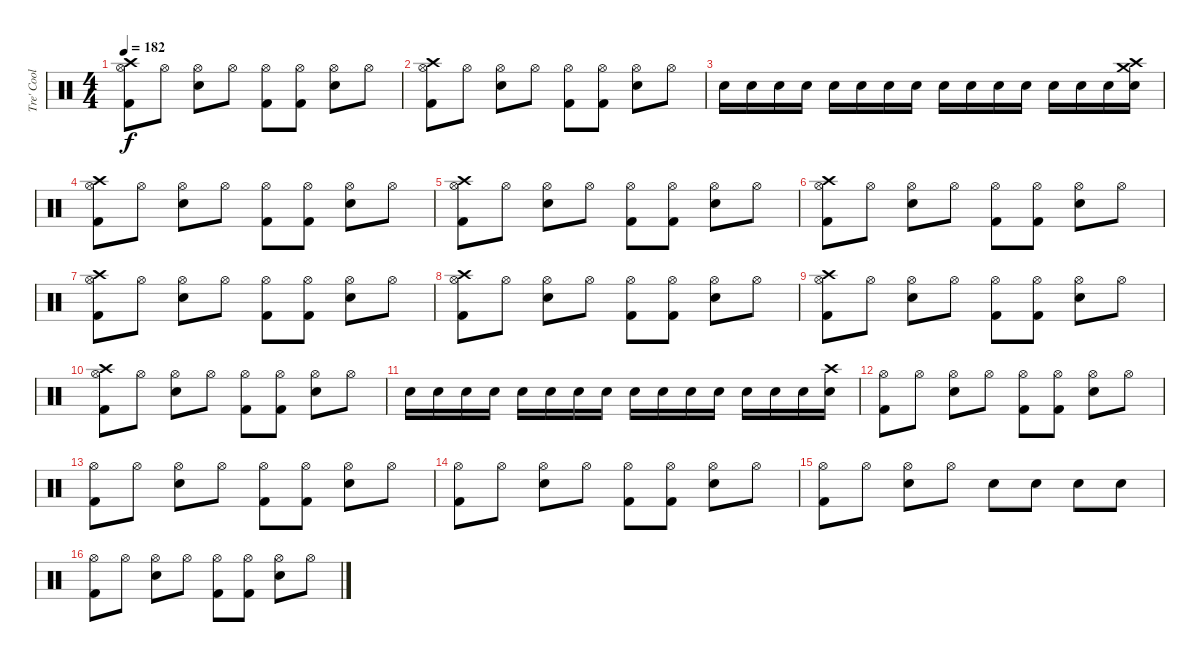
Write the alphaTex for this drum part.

\track ("Tre' Cool (DRUMS)!!!!!!!!!" "Tre' Cool ") {instrument percussion}
\staff {score}
\articulation defaults
\ts (4 4)
\tempo 182
\clef neutral
\ks c
("Crash high (hit)" "Hi-Hat (open)" "Kick (hit) 2").8{dy f} "Hi-Hat (open)".8 ("Hi-Hat (open)" "Snare (hit) 2").8 "Hi-Hat (open)".8 ("Hi-Hat (open)" "Kick (hit) 2").8 ("Hi-Hat (open)" "Kick (hit) 2").8 ("Hi-Hat (open)" "Snare (hit) 2").8 "Hi-Hat (open)".8 |
("Crash high (hit)" "Hi-Hat (open)" "Kick (hit) 2").8 "Hi-Hat (open)".8 ("Hi-Hat (open)" "Snare (hit) 2").8 "Hi-Hat (open)".8 ("Hi-Hat (open)" "Kick (hit) 2").8 ("Hi-Hat (open)" "Kick (hit) 2").8 ("Hi-Hat (open)" "Snare (hit) 2").8 "Hi-Hat (open)".8 |
"Snare (hit) 2".16 "Snare (hit) 2".16 "Snare (hit) 2".16 "Snare (hit) 2".16 "Snare (hit) 2".16 "Snare (hit) 2".16 "Snare (hit) 2".16 "Snare (hit) 2".16 "Snare (hit) 2".16 "Snare (hit) 2".16 "Snare (hit) 2".16 "Snare (hit) 2".16 "Snare (hit) 2".16 "Snare (hit) 2".16 "Snare (hit) 2".16 ("Crash high (hit)" "Crash medium (hit)" "Snare (hit) 2").16 |
("Crash high (hit)" "Hi-Hat (open)" "Kick (hit) 2").8 "Hi-Hat (open)".8 ("Hi-Hat (open)" "Snare (hit) 2").8 "Hi-Hat (open)".8 ("Hi-Hat (open)" "Kick (hit) 2").8 ("Hi-Hat (open)" "Kick (hit) 2").8 ("Hi-Hat (open)" "Snare (hit) 2").8 "Hi-Hat (open)".8 |
("Crash high (hit)" "Hi-Hat (open)" "Kick (hit) 2").8 "Hi-Hat (open)".8 ("Hi-Hat (open)" "Snare (hit) 2").8 "Hi-Hat (open)".8 ("Hi-Hat (open)" "Kick (hit) 2").8 ("Hi-Hat (open)" "Kick (hit) 2").8 ("Hi-Hat (open)" "Snare (hit) 2").8 "Hi-Hat (open)".8 |
("Crash high (hit)" "Hi-Hat (open)" "Kick (hit) 2").8 "Hi-Hat (open)".8 ("Hi-Hat (open)" "Snare (hit) 2").8 "Hi-Hat (open)".8 ("Hi-Hat (open)" "Kick (hit) 2").8 ("Hi-Hat (open)" "Kick (hit) 2").8 ("Hi-Hat (open)" "Snare (hit) 2").8 "Hi-Hat (open)".8 |
("Crash high (hit)" "Hi-Hat (open)" "Kick (hit) 2").8 "Hi-Hat (open)".8 ("Hi-Hat (open)" "Snare (hit) 2").8 "Hi-Hat (open)".8 ("Hi-Hat (open)" "Kick (hit) 2").8 ("Hi-Hat (open)" "Kick (hit) 2").8 ("Hi-Hat (open)" "Snare (hit) 2").8 "Hi-Hat (open)".8 |
("Crash high (hit)" "Hi-Hat (open)" "Kick (hit) 2").8 "Hi-Hat (open)".8 ("Hi-Hat (open)" "Snare (hit) 2").8 "Hi-Hat (open)".8 ("Hi-Hat (open)" "Kick (hit) 2").8 ("Hi-Hat (open)" "Kick (hit) 2").8 ("Hi-Hat (open)" "Snare (hit) 2").8 "Hi-Hat (open)".8 |
("Crash high (hit)" "Hi-Hat (open)" "Kick (hit) 2").8 "Hi-Hat (open)".8 ("Hi-Hat (open)" "Snare (hit) 2").8 "Hi-Hat (open)".8 ("Hi-Hat (open)" "Kick (hit) 2").8 ("Hi-Hat (open)" "Kick (hit) 2").8 ("Hi-Hat (open)" "Snare (hit) 2").8 "Hi-Hat (open)".8 |
("Crash high (hit)" "Hi-Hat (open)" "Kick (hit) 2").8 "Hi-Hat (open)".8 ("Hi-Hat (open)" "Snare (hit) 2").8 "Hi-Hat (open)".8 ("Hi-Hat (open)" "Kick (hit) 2").8 ("Hi-Hat (open)" "Kick (hit) 2").8 ("Hi-Hat (open)" "Snare (hit) 2").8 "Hi-Hat (open)".8 |
"Snare (hit) 2".16 "Snare (hit) 2".16 "Snare (hit) 2".16 "Snare (hit) 2".16 "Snare (hit) 2".16 "Snare (hit) 2".16 "Snare (hit) 2".16 "Snare (hit) 2".16 "Snare (hit) 2".16 "Snare (hit) 2".16 "Snare (hit) 2".16 "Snare (hit) 2".16 "Snare (hit) 2".16 "Snare (hit) 2".16 "Snare (hit) 2".16 ("Crash high (hit)" "Snare (hit) 2").16 |
("Hi-Hat (open)" "Kick (hit) 2").8 "Hi-Hat (open)".8 ("Hi-Hat (open)" "Snare (hit) 2").8 "Hi-Hat (open)".8 ("Hi-Hat (open)" "Kick (hit) 2").8 ("Hi-Hat (open)" "Kick (hit) 2").8 ("Hi-Hat (open)" "Snare (hit) 2").8 "Hi-Hat (open)".8 |
("Hi-Hat (open)" "Kick (hit) 2").8 "Hi-Hat (open)".8 ("Hi-Hat (open)" "Snare (hit) 2").8 "Hi-Hat (open)".8 ("Hi-Hat (open)" "Kick (hit) 2").8 ("Hi-Hat (open)" "Kick (hit) 2").8 ("Hi-Hat (open)" "Snare (hit) 2").8 "Hi-Hat (open)".8 |
("Hi-Hat (open)" "Kick (hit) 2").8 "Hi-Hat (open)".8 ("Hi-Hat (open)" "Snare (hit) 2").8 "Hi-Hat (open)".8 ("Hi-Hat (open)" "Kick (hit) 2").8 ("Hi-Hat (open)" "Kick (hit) 2").8 ("Hi-Hat (open)" "Snare (hit) 2").8 "Hi-Hat (open)".8 |
("Hi-Hat (open)" "Kick (hit) 2").8 "Hi-Hat (open)".8 ("Hi-Hat (open)" "Snare (hit) 2").8 "Hi-Hat (open)".8 "Snare (hit) 2".8 "Snare (hit) 2".8 "Snare (hit) 2".8 "Snare (hit) 2".8 |
("Hi-Hat (open)" "Kick (hit) 2").8 "Hi-Hat (open)".8 ("Hi-Hat (open)" "Snare (hit) 2").8 "Hi-Hat (open)".8 ("Hi-Hat (open)" "Kick (hit) 2").8 ("Hi-Hat (open)" "Kick (hit) 2").8 ("Hi-Hat (open)" "Snare (hit) 2").8 "Hi-Hat (open)".8
